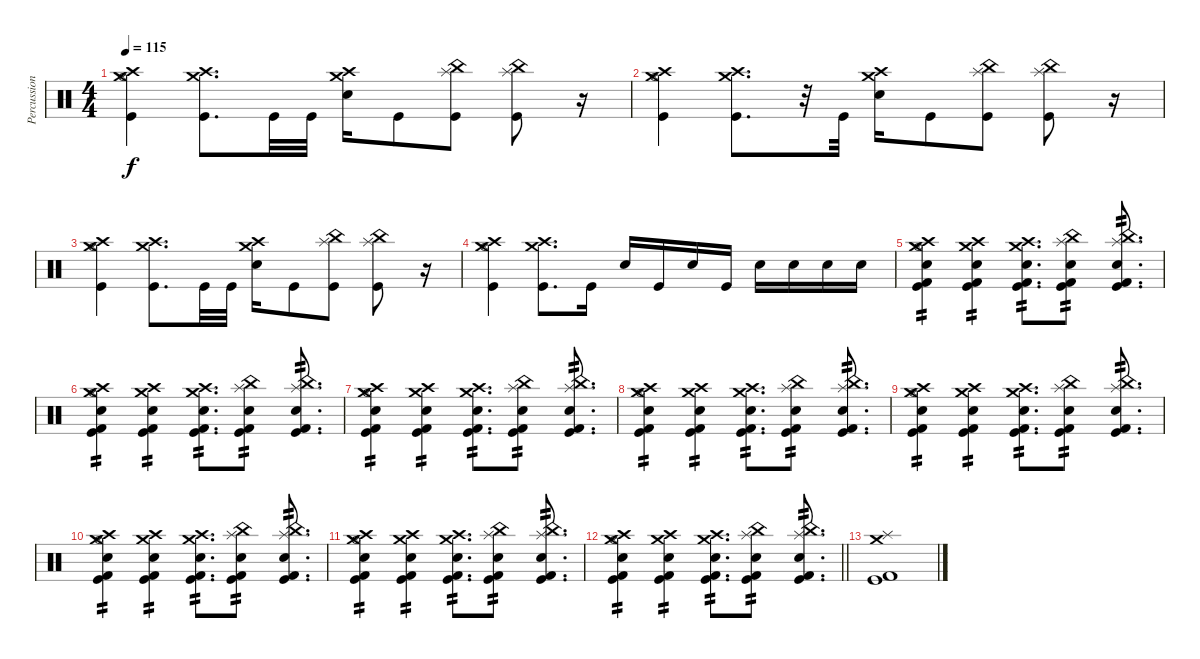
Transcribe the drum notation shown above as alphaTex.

\track ("Percussion (Approx.)" "Percussion") {instrument percussion}
\staff {score}
\articulation defaults
\ts (4 4)
\tempo 115
\clef neutral
\ks c
("Hi-Hat (open)" "Crash medium (hit)" "Crash high (hit)" "Kick (hit)").4{dy f} ("Crash medium (hit)" "Crash high (hit)" "Kick (hit)").8{d} "Kick (hit)".32 "Kick (hit)".32 ("Crash medium (hit)" "Crash high (hit)" "Electric Snare (hit)").16 "Kick (hit)".8 ("China (hit)" "Splash (hit)" "Kick (hit)").8 ("China (hit)" "Splash (hit)" "Kick (hit)").8 r.16 |
("Hi-Hat (open)" "Crash medium (hit)" "Crash high (hit)" "Kick (hit)").4 ("Crash medium (hit)" "Crash high (hit)" "Kick (hit)").8{d} r.32 "Kick (hit)".32 ("Crash medium (hit)" "Crash high (hit)" "Electric Snare (hit)").16 "Kick (hit)".8 ("China (hit)" "Splash (hit)" "Kick (hit)").8 ("China (hit)" "Splash (hit)" "Kick (hit)").8 r.16 |
("Hi-Hat (open)" "Crash medium (hit)" "Crash high (hit)" "Kick (hit)").4 ("Crash medium (hit)" "Crash high (hit)" "Kick (hit)").8{d} "Kick (hit)".32 "Kick (hit)".32 ("Crash medium (hit)" "Crash high (hit)" "Electric Snare (hit)").16 "Kick (hit)".8 ("China (hit)" "Splash (hit)" "Kick (hit)").8 ("China (hit)" "Splash (hit)" "Kick (hit)").8 r.16 |
("Hi-Hat (open)" "Crash medium (hit)" "Crash high (hit)" "Kick (hit)").4 ("Crash medium (hit)" "Crash high (hit)" "Kick (hit)").8{d} "Kick (hit)".16 "Electric Snare (hit)".16 "Kick (hit)".16 "Electric Snare (hit)".16 "Kick (hit)".16 "Electric Snare (hit)".16 "Electric Snare (hit)".16 "Electric Snare (hit)".16 "Electric Snare (hit)".16 |
("Hi-Hat (open)" "Crash medium (hit)" "Crash high (hit)" "Kick (hit) 2" "Kick (hit)" "Electric Snare (hit)").4{tp 2} ("Crash medium (hit)" "Crash high (hit)" "Kick (hit) 2" "Kick (hit)" "Electric Snare (hit)").4{tp 2} ("Crash medium (hit)" "Crash high (hit)" "Kick (hit) 2" "Kick (hit)" "Electric Snare (hit)").8{d tp 2} ("China (hit)" "Splash (hit)" "Kick (hit) 2" "Kick (hit)" "Electric Snare (hit)").8{tp 2} ("China (hit)" "Splash (hit)" "Kick (hit) 2" "Kick (hit)" "Electric Snare (hit)").8{d tp 2} |
("Hi-Hat (open)" "Crash medium (hit)" "Crash high (hit)" "Kick (hit) 2" "Kick (hit)" "Electric Snare (hit)").4{tp 2} ("Crash medium (hit)" "Crash high (hit)" "Kick (hit) 2" "Kick (hit)" "Electric Snare (hit)").4{tp 2} ("Crash medium (hit)" "Crash high (hit)" "Kick (hit) 2" "Kick (hit)" "Electric Snare (hit)").8{d tp 2} ("China (hit)" "Splash (hit)" "Kick (hit) 2" "Kick (hit)" "Electric Snare (hit)").8{tp 2} ("China (hit)" "Splash (hit)" "Kick (hit) 2" "Kick (hit)" "Electric Snare (hit)").8{d tp 2} |
("Hi-Hat (open)" "Crash medium (hit)" "Crash high (hit)" "Kick (hit) 2" "Kick (hit)" "Electric Snare (hit)").4{tp 2} ("Crash medium (hit)" "Crash high (hit)" "Kick (hit) 2" "Kick (hit)" "Electric Snare (hit)").4{tp 2} ("Crash medium (hit)" "Crash high (hit)" "Kick (hit) 2" "Kick (hit)" "Electric Snare (hit)").8{d tp 2} ("China (hit)" "Splash (hit)" "Kick (hit) 2" "Kick (hit)" "Electric Snare (hit)").8{tp 2} ("China (hit)" "Splash (hit)" "Kick (hit) 2" "Kick (hit)" "Electric Snare (hit)").8{d tp 2} |
("Hi-Hat (open)" "Crash medium (hit)" "Crash high (hit)" "Kick (hit) 2" "Kick (hit)" "Electric Snare (hit)").4{tp 2} ("Crash medium (hit)" "Crash high (hit)" "Kick (hit) 2" "Kick (hit)" "Electric Snare (hit)").4{tp 2} ("Crash medium (hit)" "Crash high (hit)" "Kick (hit) 2" "Kick (hit)" "Electric Snare (hit)").8{d tp 2} ("China (hit)" "Splash (hit)" "Kick (hit) 2" "Kick (hit)" "Electric Snare (hit)").8{tp 2} ("China (hit)" "Splash (hit)" "Kick (hit) 2" "Kick (hit)" "Electric Snare (hit)").8{d tp 2} |
("Hi-Hat (open)" "Crash medium (hit)" "Crash high (hit)" "Kick (hit) 2" "Kick (hit)" "Electric Snare (hit)").4{tp 2} ("Crash medium (hit)" "Crash high (hit)" "Kick (hit) 2" "Kick (hit)" "Electric Snare (hit)").4{tp 2} ("Crash medium (hit)" "Crash high (hit)" "Kick (hit) 2" "Kick (hit)" "Electric Snare (hit)").8{d tp 2} ("China (hit)" "Splash (hit)" "Kick (hit) 2" "Kick (hit)" "Electric Snare (hit)").8{tp 2} ("China (hit)" "Splash (hit)" "Kick (hit) 2" "Kick (hit)" "Electric Snare (hit)").8{d tp 2} |
("Hi-Hat (open)" "Crash medium (hit)" "Crash high (hit)" "Kick (hit) 2" "Kick (hit)" "Electric Snare (hit)").4{tp 2} ("Crash medium (hit)" "Crash high (hit)" "Kick (hit) 2" "Kick (hit)" "Electric Snare (hit)").4{tp 2} ("Crash medium (hit)" "Crash high (hit)" "Kick (hit) 2" "Kick (hit)" "Electric Snare (hit)").8{d tp 2} ("China (hit)" "Splash (hit)" "Kick (hit) 2" "Kick (hit)" "Electric Snare (hit)").8{tp 2} ("China (hit)" "Splash (hit)" "Kick (hit) 2" "Kick (hit)" "Electric Snare (hit)").8{d tp 2} |
("Hi-Hat (open)" "Crash medium (hit)" "Crash high (hit)" "Kick (hit) 2" "Kick (hit)" "Electric Snare (hit)").4{tp 2} ("Crash medium (hit)" "Crash high (hit)" "Kick (hit) 2" "Kick (hit)" "Electric Snare (hit)").4{tp 2} ("Crash medium (hit)" "Crash high (hit)" "Kick (hit) 2" "Kick (hit)" "Electric Snare (hit)").8{d tp 2} ("China (hit)" "Splash (hit)" "Kick (hit) 2" "Kick (hit)" "Electric Snare (hit)").8{tp 2} ("China (hit)" "Splash (hit)" "Kick (hit) 2" "Kick (hit)" "Electric Snare (hit)").8{d tp 2} |
\barLineRight lightlight
("Hi-Hat (open)" "Crash medium (hit)" "Crash high (hit)" "Kick (hit) 2" "Kick (hit)" "Electric Snare (hit)").4{tp 2} ("Crash medium (hit)" "Crash high (hit)" "Kick (hit) 2" "Kick (hit)" "Electric Snare (hit)").4{tp 2} ("Crash medium (hit)" "Crash high (hit)" "Kick (hit) 2" "Kick (hit)" "Electric Snare (hit)").8{d tp 2} ("China (hit)" "Splash (hit)" "Kick (hit) 2" "Kick (hit)" "Electric Snare (hit)").8{tp 2} ("China (hit)" "Splash (hit)" "Kick (hit) 2" "Kick (hit)" "Electric Snare (hit)").8{d tp 2} |
\section ("" "")
("Crash medium (hit)" "Splash (hit)" "Kick (hit) 2" "Kick (hit)").1
